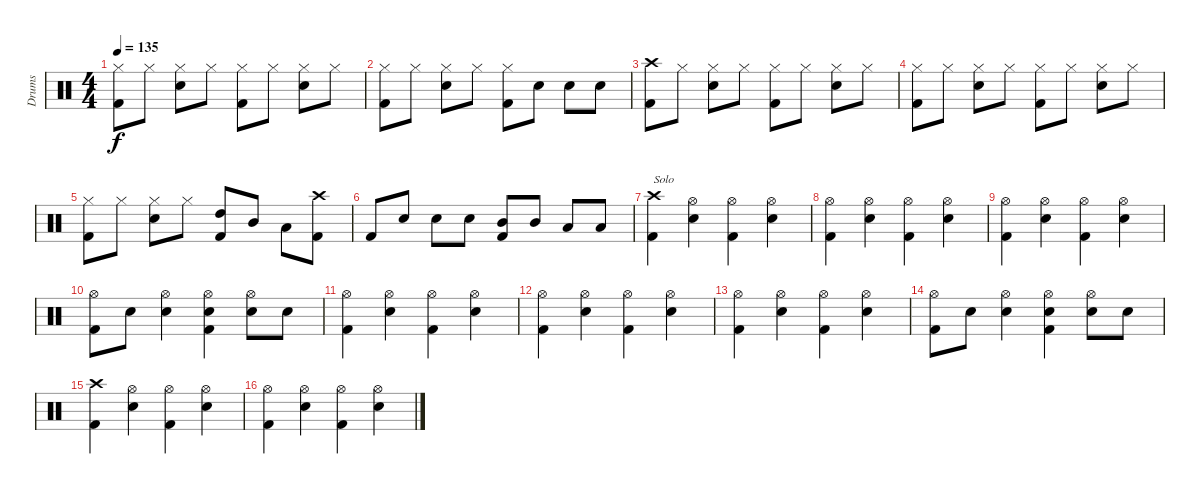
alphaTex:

\track ("Drums" "Drums") {instrument percussion}
\staff {score}
\articulation defaults
\ts (4 4)
\tempo 135
\clef neutral
\ks c
("Hi-Hat (closed)" "Kick (hit) 2").8{dy f} "Hi-Hat (closed)".8 ("Hi-Hat (closed)" "Snare (hit) 2").8 "Hi-Hat (closed)".8 ("Hi-Hat (closed)" "Kick (hit) 2").8 "Hi-Hat (closed)".8 ("Hi-Hat (closed)" "Snare (hit) 2").8 "Hi-Hat (closed)".8 |
("Hi-Hat (closed)" "Kick (hit) 2").8 "Hi-Hat (closed)".8 ("Hi-Hat (closed)" "Snare (hit) 2").8 "Hi-Hat (closed)".8 ("Hi-Hat (closed)" "Kick (hit) 2").8 "Snare (hit) 2".8 "Snare (hit) 2".8 "Snare (hit) 2".8 |
("Crash high (hit)" "Kick (hit) 2").8 "Hi-Hat (closed)".8 ("Hi-Hat (closed)" "Snare (hit) 2").8 "Hi-Hat (closed)".8 ("Hi-Hat (closed)" "Kick (hit) 2").8 "Hi-Hat (closed)".8 ("Hi-Hat (closed)" "Snare (hit) 2").8 "Hi-Hat (closed)".8 |
("Hi-Hat (closed)" "Kick (hit) 2").8 "Hi-Hat (closed)".8 ("Hi-Hat (closed)" "Snare (hit) 2").8 "Hi-Hat (closed)".8 ("Hi-Hat (closed)" "Kick (hit) 2").8 "Hi-Hat (closed)".8 ("Hi-Hat (closed)" "Snare (hit) 2").8 "Hi-Hat (closed)".8 |
("Hi-Hat (closed)" "Kick (hit) 2").8 "Hi-Hat (closed)".8 ("Hi-Hat (closed)" "Snare (hit) 2").8 "Hi-Hat (closed)".8 ("High Tom (hit)" "Kick (hit) 2").8 "Mid Tom (hit)".8 "Low Tom (hit)".8 ("Crash high (hit)" "Kick (hit) 2").8 |
"Kick (hit) 2".8 "Snare (hit) 2".8 "Snare (hit) 2".8 "Snare (hit) 2".8 ("Mid Tom (hit)" "Kick (hit) 2").8 "Mid Tom (hit)".8 "Low Tom (hit)".8 "Low Tom (hit)".8 |
("Crash high (hit)" "Kick (hit) 2").4{txt "Solo"} ("Hi-Hat (open)" "Snare (hit) 2").4 ("Hi-Hat (open)" "Kick (hit) 2").4 ("Hi-Hat (open)" "Snare (hit) 2").4 |
("Hi-Hat (open)" "Kick (hit) 2").4 ("Hi-Hat (open)" "Snare (hit) 2").4 ("Hi-Hat (open)" "Kick (hit) 2").4 ("Hi-Hat (open)" "Snare (hit) 2").4 |
("Hi-Hat (open)" "Kick (hit) 2").4 ("Hi-Hat (open)" "Snare (hit) 2").4 ("Hi-Hat (open)" "Kick (hit) 2").4 ("Hi-Hat (open)" "Snare (hit) 2").4 |
("Hi-Hat (open)" "Kick (hit) 2").8 "Snare (hit) 2".8 ("Hi-Hat (open)" "Snare (hit) 2").4 ("Hi-Hat (open)" "Snare (hit) 2" "Kick (hit) 2").4 ("Hi-Hat (open)" "Snare (hit) 2").8 "Snare (hit) 2".8 |
("Hi-Hat (open)" "Kick (hit) 2").4 ("Hi-Hat (open)" "Snare (hit) 2").4 ("Hi-Hat (open)" "Kick (hit) 2").4 ("Hi-Hat (open)" "Snare (hit) 2").4 |
("Hi-Hat (open)" "Kick (hit) 2").4 ("Hi-Hat (open)" "Snare (hit) 2").4 ("Hi-Hat (open)" "Kick (hit) 2").4 ("Hi-Hat (open)" "Snare (hit) 2").4 |
("Hi-Hat (open)" "Kick (hit) 2").4 ("Hi-Hat (open)" "Snare (hit) 2").4 ("Hi-Hat (open)" "Kick (hit) 2").4 ("Hi-Hat (open)" "Snare (hit) 2").4 |
("Hi-Hat (open)" "Kick (hit) 2").8 "Snare (hit) 2".8 ("Hi-Hat (open)" "Snare (hit) 2").4 ("Hi-Hat (open)" "Snare (hit) 2" "Kick (hit) 2").4 ("Hi-Hat (open)" "Snare (hit) 2").8 "Snare (hit) 2".8 |
("Crash high (hit)" "Kick (hit) 2").4 ("Hi-Hat (open)" "Snare (hit) 2").4 ("Hi-Hat (open)" "Kick (hit) 2").4 ("Hi-Hat (open)" "Snare (hit) 2").4 |
("Hi-Hat (open)" "Kick (hit) 2").4 ("Hi-Hat (open)" "Snare (hit) 2").4 ("Hi-Hat (open)" "Kick (hit) 2").4 ("Hi-Hat (open)" "Snare (hit) 2").4
